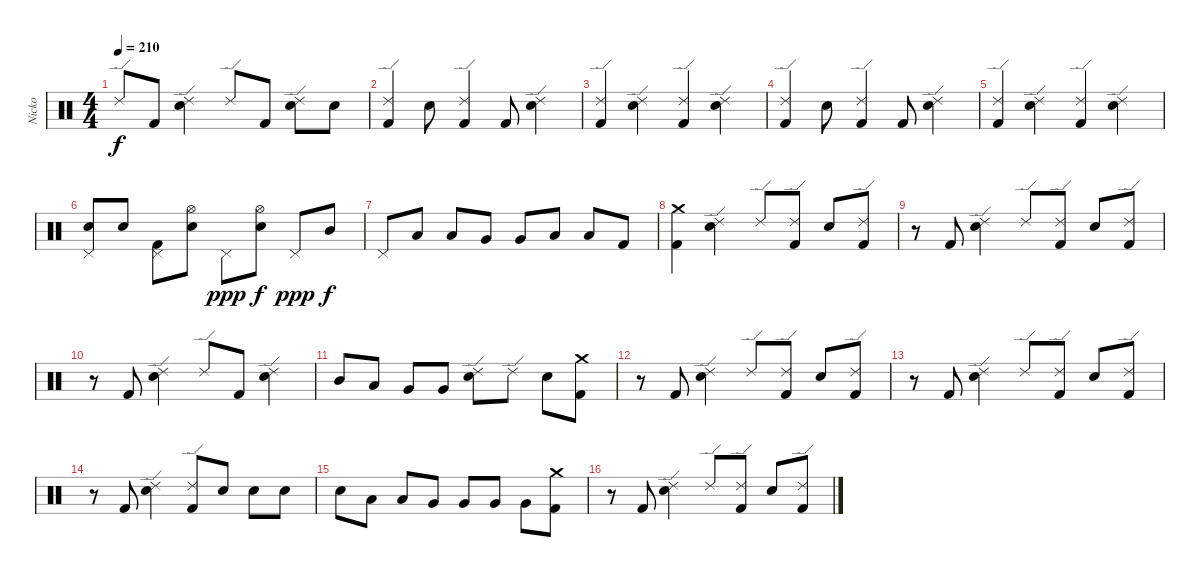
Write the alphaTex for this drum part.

\track ("Nicko" "Nicko") {instrument percussion}
\staff {score}
\articulation defaults
\ts (4 4)
\tempo 210
\clef neutral
\ks c "Ride (edge) 2".8{dy f} "Kick (hit) 2".8
("Ride (edge) 2" "Electric Snare (hit)").4 "Ride (edge) 2".8 "Kick (hit) 2".8 ("Ride (edge) 2" "Electric Snare (hit)").8 "Electric Snare (hit)".8 |
("Ride (edge) 2" "Kick (hit) 2").4 "Electric Snare (hit)".8 ("Ride (edge) 2" "Kick (hit) 2").4 "Kick (hit) 2".8 ("Ride (edge) 2" "Electric Snare (hit)").4 |
("Ride (edge) 2" "Kick (hit) 2").4 ("Ride (edge) 2" "Electric Snare (hit)").4 ("Ride (edge) 2" "Kick (hit) 2").4 ("Ride (edge) 2" "Electric Snare (hit)").4 |
("Ride (edge) 2" "Kick (hit) 2").4 "Electric Snare (hit)".8 ("Ride (edge) 2" "Kick (hit) 2").4 "Kick (hit) 2".8 ("Ride (edge) 2" "Electric Snare (hit)").4 |
("Ride (edge) 2" "Kick (hit) 2").4 ("Ride (edge) 2" "Electric Snare (hit)").4 ("Ride (edge) 2" "Kick (hit) 2").4 ("Ride (edge) 2" "Electric Snare (hit)").4 |
("Pedal Hi-Hat (hit)" "Electric Snare (hit)").8 "Electric Snare (hit)".8 ("Pedal Hi-Hat (hit)" "Kick (hit) 2").8 ("Hi-Hat (open)" "Electric Snare (hit)").8 "Pedal Hi-Hat (hit)".8{dy ppp} ("Hi-Hat (open)" "Electric Snare (hit)").8{dy f} "Pedal Hi-Hat (hit)".8{dy ppp} "Mid Tom (hit)".8{dy f} |
"Pedal Hi-Hat (hit)".8 "Low Tom (hit)".8 "Low Tom (hit)".8 "Very Low Tom (hit)".8 "Very Low Tom (hit)".8 "Low Floor Tom (hit)".8 "Low Floor Tom (hit)".8 "Kick (hit) 2".8 |
("Crash medium (hit)" "Kick (hit) 2").4 ("Ride (edge) 2" "Electric Snare (hit)").4 "Ride (edge) 2".8 ("Ride (edge) 2" "Kick (hit) 2").8 "Electric Snare (hit)".8 ("Ride (edge) 2" "Kick (hit) 2").8 |
r.8 "Kick (hit) 2".8 ("Ride (edge) 2" "Electric Snare (hit)").4 "Ride (edge) 2".8 ("Ride (edge) 2" "Kick (hit) 2").8 "Electric Snare (hit)".8 ("Ride (edge) 2" "Kick (hit) 2").8 |
r.8 "Kick (hit) 2".8 ("Ride (edge) 2" "Electric Snare (hit)").4 "Ride (edge) 2".8 "Kick (hit) 2".8 ("Ride (edge) 2" "Electric Snare (hit)").4 |
"Mid Tom (hit)".8 "Low Tom (hit)".8 "Very Low Tom (hit)".8 "Very Low Tom (hit)".8 ("Ride (edge) 2" "Electric Snare (hit)").8 "Ride (edge) 2".8 "Electric Snare (hit)".8 ("Crash medium (hit)" "Kick (hit) 2").8 |
r.8 "Kick (hit) 2".8 ("Ride (edge) 2" "Electric Snare (hit)").4 "Ride (edge) 2".8 ("Ride (edge) 2" "Kick (hit) 2").8 "Electric Snare (hit)".8 ("Ride (edge) 2" "Kick (hit) 2").8 |
r.8 "Kick (hit) 2".8 ("Ride (edge) 2" "Electric Snare (hit)").4 "Ride (edge) 2".8 ("Ride (edge) 2" "Kick (hit) 2").8 "Electric Snare (hit)".8 ("Ride (edge) 2" "Kick (hit) 2").8 |
r.8 "Kick (hit) 2".8 ("Ride (edge) 2" "Electric Snare (hit)").4 ("Ride (edge) 2" "Kick (hit) 2").8 "Electric Snare (hit)".8 "Electric Snare (hit)".8 "Electric Snare (hit)".8 |
"Electric Snare (hit)".8 "Low Tom (hit)".8 "Low Tom (hit)".8 "Very Low Tom (hit)".8 "Very Low Tom (hit)".8 "Very Low Tom (hit)".8 "Very Low Tom (hit)".8 ("Crash medium (hit)" "Kick (hit) 2").8 |
r.8 "Kick (hit) 2".8 ("Ride (edge) 2" "Electric Snare (hit)").4 "Ride (edge) 2".8 ("Ride (edge) 2" "Kick (hit) 2").8 "Electric Snare (hit)".8 ("Ride (edge) 2" "Kick (hit) 2").8
